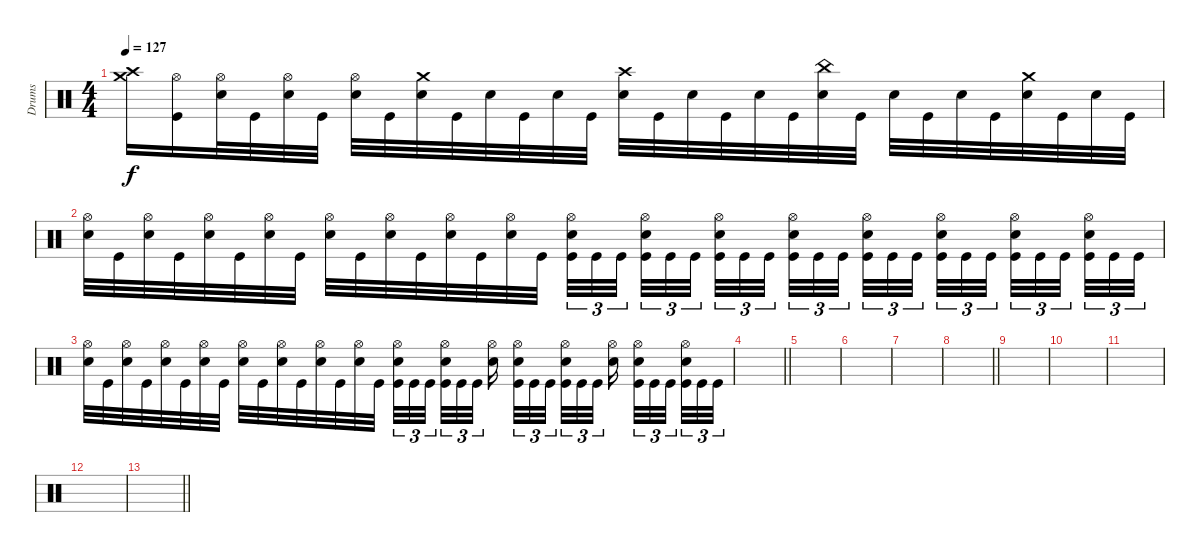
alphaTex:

\track ("Drums" "Drums") {instrument percussion}
\staff
\articulation defaults
\ts (4 4)
\tempo 127
\clef neutral
\ks c
("Crash high (hit)" "Crash medium (hit)").16{dy f} ("Hi-Hat (open)" "Kick (hit)").16 ("Hi-Hat (open)" "Electric Snare (hit)").32 "Kick (hit)".32 ("Hi-Hat (open)" "Electric Snare (hit)").32 "Kick (hit)".32 ("Hi-Hat (open)" "Electric Snare (hit)").32 "Kick (hit)".32 ("Crash medium (hit)" "Electric Snare (hit)").32 "Kick (hit)".32 "Electric Snare (hit)".32 "Kick (hit)".32 "Electric Snare (hit)".32 "Kick (hit)".32 ("Crash high (hit)" "Electric Snare (hit)").32 "Kick (hit)".32 "Electric Snare (hit)".32 "Kick (hit)".32 "Electric Snare (hit)".32 "Kick (hit)".32 ("China (hit)" "Electric Snare (hit)").32 "Kick (hit)".32 "Electric Snare (hit)".32 "Kick (hit)".32 "Electric Snare (hit)".32 "Kick (hit)".32 ("Crash medium (hit)" "Electric Snare (hit)").32 "Kick (hit)".32 "Electric Snare (hit)".32 "Kick (hit)".32 |
("Hi-Hat (open)" "Electric Snare (hit)").32 "Kick (hit)".32 ("Hi-Hat (open)" "Electric Snare (hit)").32 "Kick (hit)".32 ("Hi-Hat (open)" "Electric Snare (hit)").32 "Kick (hit)".32 ("Hi-Hat (open)" "Electric Snare (hit)").32 "Kick (hit)".32 ("Hi-Hat (open)" "Electric Snare (hit)").32 "Kick (hit)".32 ("Hi-Hat (open)" "Electric Snare (hit)").32 "Kick (hit)".32 ("Hi-Hat (open)" "Electric Snare (hit)").32 "Kick (hit)".32 ("Hi-Hat (open)" "Electric Snare (hit)").32 "Kick (hit)".32 ("Hi-Hat (open)" "Electric Snare (hit)" "Kick (hit)").32{tu (3 2)} "Kick (hit)".32{tu (3 2)} "Kick (hit)".32{tu (3 2) beam splitsecondary} ("Hi-Hat (open)" "Electric Snare (hit)" "Kick (hit)").32{tu (3 2)} "Kick (hit)".32{tu (3 2)} "Kick (hit)".32{tu (3 2) beam splitsecondary} ("Hi-Hat (open)" "Electric Snare (hit)" "Kick (hit)").32{tu (3 2)} "Kick (hit)".32{tu (3 2)} "Kick (hit)".32{tu (3 2) beam splitsecondary} ("Hi-Hat (open)" "Electric Snare (hit)" "Kick (hit)").32{tu (3 2)} "Kick (hit)".32{tu (3 2)} "Kick (hit)".32{tu (3 2)} ("Hi-Hat (open)" "Electric Snare (hit)" "Kick (hit)").32{tu (3 2)} "Kick (hit)".32{tu (3 2)} "Kick (hit)".32{tu (3 2) beam splitsecondary} ("Hi-Hat (open)" "Electric Snare (hit)" "Kick (hit)").32{tu (3 2)} "Kick (hit)".32{tu (3 2)} "Kick (hit)".32{tu (3 2) beam splitsecondary} ("Hi-Hat (open)" "Electric Snare (hit)" "Kick (hit)").32{tu (3 2)} "Kick (hit)".32{tu (3 2)} "Kick (hit)".32{tu (3 2) beam splitsecondary} ("Hi-Hat (open)" "Electric Snare (hit)" "Kick (hit)").32{tu (3 2)} "Kick (hit)".32{tu (3 2)} "Kick (hit)".32{tu (3 2)} |
("Hi-Hat (open)" "Electric Snare (hit)").32 "Kick (hit)".32 ("Hi-Hat (open)" "Electric Snare (hit)").32 "Kick (hit)".32 ("Hi-Hat (open)" "Electric Snare (hit)").32 "Kick (hit)".32 ("Hi-Hat (open)" "Electric Snare (hit)").32 "Kick (hit)".32 ("Hi-Hat (open)" "Electric Snare (hit)").32 "Kick (hit)".32 ("Hi-Hat (open)" "Electric Snare (hit)").32 "Kick (hit)".32 ("Hi-Hat (open)" "Electric Snare (hit)").32 "Kick (hit)".32 ("Hi-Hat (open)" "Electric Snare (hit)").32 "Kick (hit)".32 ("Hi-Hat (open)" "Electric Snare (hit)" "Kick (hit)").32{tu (3 2)} "Kick (hit)".32{tu (3 2)} "Kick (hit)".32{tu (3 2) beam splitsecondary} ("Hi-Hat (open)" "Electric Snare (hit)" "Kick (hit)").32{tu (3 2)} "Kick (hit)".32{tu (3 2)} "Kick (hit)".32{tu (3 2) beam splitsecondary} ("Hi-Hat (open)" "Electric Snare (hit)").16{beam splitsecondary} ("Hi-Hat (open)" "Electric Snare (hit)" "Kick (hit)").32{tu (3 2)} "Kick (hit)".32{tu (3 2)} "Kick (hit)".32{tu (3 2)} ("Hi-Hat (open)" "Electric Snare (hit)" "Kick (hit)").32{tu (3 2)} "Kick (hit)".32{tu (3 2)} "Kick (hit)".32{tu (3 2) beam splitsecondary} ("Hi-Hat (open)" "Electric Snare (hit)").16{beam splitsecondary} ("Hi-Hat (open)" "Electric Snare (hit)" "Kick (hit)").32{tu (3 2)} "Kick (hit)".32{tu (3 2)} "Kick (hit)".32{tu (3 2) beam splitsecondary} ("Hi-Hat (open)" "Electric Snare (hit)" "Kick (hit)").32{tu (3 2)} "Kick (hit)".32{tu (3 2)} "Kick (hit)".32{tu (3 2)} |
\barLineRight lightlight
|
|
|
|
\barLineRight lightlight
|
|
|
|
|
\barLineRight lightlight
